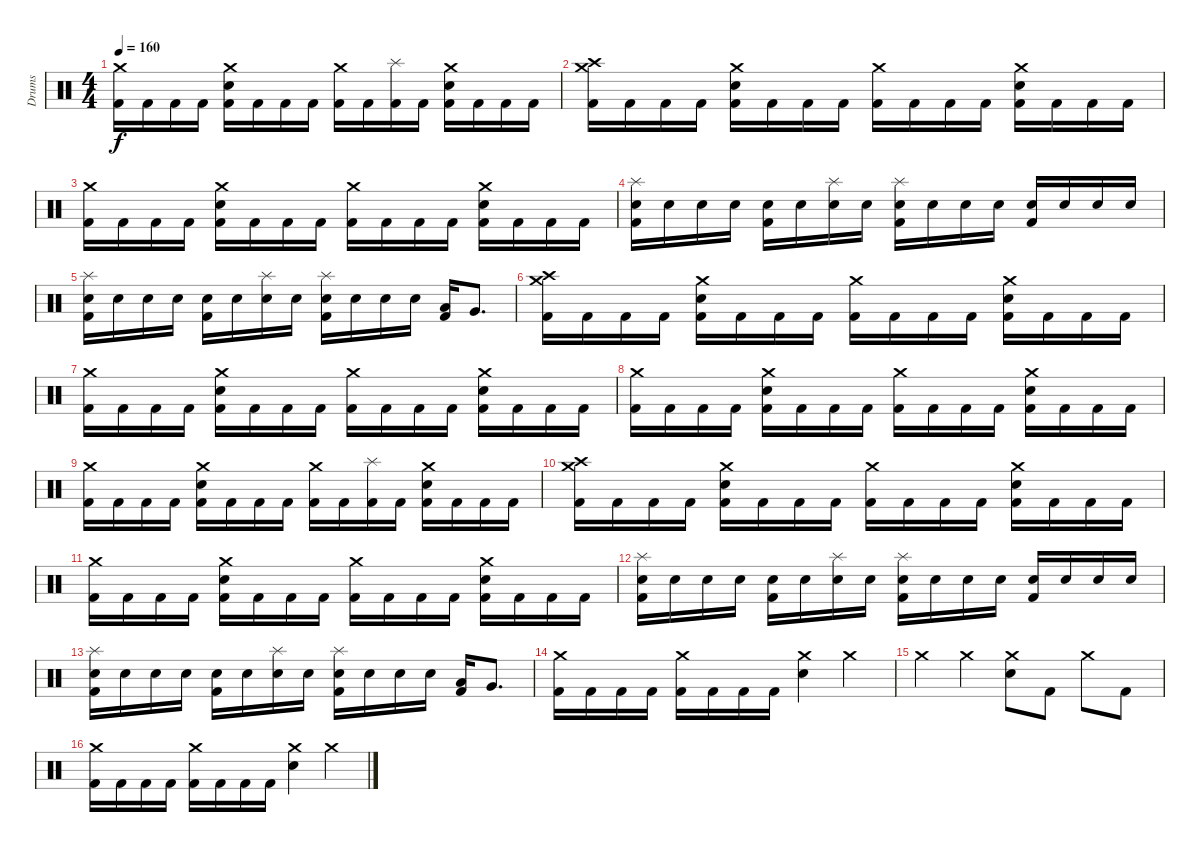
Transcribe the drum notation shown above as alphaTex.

\track ("Drums" "Drums") {instrument percussion}
\staff {score}
\articulation defaults
\ts (4 4)
\tempo 160
\clef neutral
\ks c
("Crash medium (hit)" "Kick (hit) 2").16{dy f} "Kick (hit) 2".16 "Kick (hit) 2".16 "Kick (hit) 2".16 ("Crash medium (hit)" "Electric Snare (hit)" "Kick (hit) 2").16 "Kick (hit) 2".16 "Kick (hit) 2".16 "Kick (hit) 2".16 ("Crash medium (hit)" "Kick (hit) 2").16 "Kick (hit) 2".16 ("Splash (hit)" "Kick (hit) 2").16 "Kick (hit) 2".16 ("Crash medium (hit)" "Electric Snare (hit)" "Kick (hit) 2").16 "Kick (hit) 2".16 "Kick (hit) 2".16 "Kick (hit) 2".16 |
("Crash medium (hit)" "Crash high (hit)" "Kick (hit) 2").16 "Kick (hit) 2".16 "Kick (hit) 2".16 "Kick (hit) 2".16 ("Crash medium (hit)" "Electric Snare (hit)" "Kick (hit) 2").16 "Kick (hit) 2".16 "Kick (hit) 2".16 "Kick (hit) 2".16 ("Crash medium (hit)" "Kick (hit) 2").16 "Kick (hit) 2".16 "Kick (hit) 2".16 "Kick (hit) 2".16 ("Crash medium (hit)" "Electric Snare (hit)" "Kick (hit) 2").16 "Kick (hit) 2".16 "Kick (hit) 2".16 "Kick (hit) 2".16 |
("Crash medium (hit)" "Kick (hit) 2").16 "Kick (hit) 2".16 "Kick (hit) 2".16 "Kick (hit) 2".16 ("Crash medium (hit)" "Electric Snare (hit)" "Kick (hit) 2").16 "Kick (hit) 2".16 "Kick (hit) 2".16 "Kick (hit) 2".16 ("Crash medium (hit)" "Kick (hit) 2").16 "Kick (hit) 2".16 "Kick (hit) 2".16 "Kick (hit) 2".16 ("Crash medium (hit)" "Electric Snare (hit)" "Kick (hit) 2").16 "Kick (hit) 2".16 "Kick (hit) 2".16 "Kick (hit) 2".16 |
("Splash (hit)" "Electric Snare (hit)" "Kick (hit) 2").16 "Electric Snare (hit)".16 "Electric Snare (hit)".16 "Electric Snare (hit)".16 ("Electric Snare (hit)" "Kick (hit) 2").16 "Electric Snare (hit)".16 ("Splash (hit)" "Electric Snare (hit)").16 "Electric Snare (hit)".16 ("Splash (hit)" "Electric Snare (hit)" "Kick (hit) 2").16 "Electric Snare (hit)".16 "Electric Snare (hit)".16 "Electric Snare (hit)".16 ("Electric Snare (hit)" "Kick (hit) 2").16 "Electric Snare (hit)".16 "Electric Snare (hit)".16 "Electric Snare (hit)".16 |
("Splash (hit)" "Electric Snare (hit)" "Kick (hit) 2").16 "Electric Snare (hit)".16 "Electric Snare (hit)".16 "Electric Snare (hit)".16 ("Electric Snare (hit)" "Kick (hit) 2").16 "Electric Snare (hit)".16 ("Splash (hit)" "Electric Snare (hit)").16 "Electric Snare (hit)".16 ("Splash (hit)" "Electric Snare (hit)" "Kick (hit) 2").16 "Electric Snare (hit)".16 "Electric Snare (hit)".16 "Electric Snare (hit)".16 ("Low Tom (hit)" "Kick (hit) 2").16 "Very Low Tom (hit)".8{d} |
("Crash medium (hit)" "Crash high (hit)" "Kick (hit) 2").16 "Kick (hit) 2".16 "Kick (hit) 2".16 "Kick (hit) 2".16 ("Crash medium (hit)" "Electric Snare (hit)" "Kick (hit) 2").16 "Kick (hit) 2".16 "Kick (hit) 2".16 "Kick (hit) 2".16 ("Crash medium (hit)" "Kick (hit) 2").16 "Kick (hit) 2".16 "Kick (hit) 2".16 "Kick (hit) 2".16 ("Crash medium (hit)" "Electric Snare (hit)" "Kick (hit) 2").16 "Kick (hit) 2".16 "Kick (hit) 2".16 "Kick (hit) 2".16 |
("Crash medium (hit)" "Kick (hit) 2").16 "Kick (hit) 2".16 "Kick (hit) 2".16 "Kick (hit) 2".16 ("Crash medium (hit)" "Electric Snare (hit)" "Kick (hit) 2").16 "Kick (hit) 2".16 "Kick (hit) 2".16 "Kick (hit) 2".16 ("Crash medium (hit)" "Kick (hit) 2").16 "Kick (hit) 2".16 "Kick (hit) 2".16 "Kick (hit) 2".16 ("Crash medium (hit)" "Electric Snare (hit)" "Kick (hit) 2").16 "Kick (hit) 2".16 "Kick (hit) 2".16 "Kick (hit) 2".16 |
("Crash medium (hit)" "Kick (hit) 2").16 "Kick (hit) 2".16 "Kick (hit) 2".16 "Kick (hit) 2".16 ("Crash medium (hit)" "Electric Snare (hit)" "Kick (hit) 2").16 "Kick (hit) 2".16 "Kick (hit) 2".16 "Kick (hit) 2".16 ("Crash medium (hit)" "Kick (hit) 2").16 "Kick (hit) 2".16 "Kick (hit) 2".16 "Kick (hit) 2".16 ("Crash medium (hit)" "Electric Snare (hit)" "Kick (hit) 2").16 "Kick (hit) 2".16 "Kick (hit) 2".16 "Kick (hit) 2".16 |
("Crash medium (hit)" "Kick (hit) 2").16 "Kick (hit) 2".16 "Kick (hit) 2".16 "Kick (hit) 2".16 ("Crash medium (hit)" "Electric Snare (hit)" "Kick (hit) 2").16 "Kick (hit) 2".16 "Kick (hit) 2".16 "Kick (hit) 2".16 ("Crash medium (hit)" "Kick (hit) 2").16 "Kick (hit) 2".16 ("Splash (hit)" "Kick (hit) 2").16 "Kick (hit) 2".16 ("Crash medium (hit)" "Electric Snare (hit)" "Kick (hit) 2").16 "Kick (hit) 2".16 "Kick (hit) 2".16 "Kick (hit) 2".16 |
("Crash medium (hit)" "Crash high (hit)" "Kick (hit) 2").16 "Kick (hit) 2".16 "Kick (hit) 2".16 "Kick (hit) 2".16 ("Crash medium (hit)" "Electric Snare (hit)" "Kick (hit) 2").16 "Kick (hit) 2".16 "Kick (hit) 2".16 "Kick (hit) 2".16 ("Crash medium (hit)" "Kick (hit) 2").16 "Kick (hit) 2".16 "Kick (hit) 2".16 "Kick (hit) 2".16 ("Crash medium (hit)" "Electric Snare (hit)" "Kick (hit) 2").16 "Kick (hit) 2".16 "Kick (hit) 2".16 "Kick (hit) 2".16 |
("Crash medium (hit)" "Kick (hit) 2").16 "Kick (hit) 2".16 "Kick (hit) 2".16 "Kick (hit) 2".16 ("Crash medium (hit)" "Electric Snare (hit)" "Kick (hit) 2").16 "Kick (hit) 2".16 "Kick (hit) 2".16 "Kick (hit) 2".16 ("Crash medium (hit)" "Kick (hit) 2").16 "Kick (hit) 2".16 "Kick (hit) 2".16 "Kick (hit) 2".16 ("Crash medium (hit)" "Electric Snare (hit)" "Kick (hit) 2").16 "Kick (hit) 2".16 "Kick (hit) 2".16 "Kick (hit) 2".16 |
("Splash (hit)" "Electric Snare (hit)" "Kick (hit) 2").16 "Electric Snare (hit)".16 "Electric Snare (hit)".16 "Electric Snare (hit)".16 ("Electric Snare (hit)" "Kick (hit) 2").16 "Electric Snare (hit)".16 ("Splash (hit)" "Electric Snare (hit)").16 "Electric Snare (hit)".16 ("Splash (hit)" "Electric Snare (hit)" "Kick (hit) 2").16 "Electric Snare (hit)".16 "Electric Snare (hit)".16 "Electric Snare (hit)".16 ("Electric Snare (hit)" "Kick (hit) 2").16 "Electric Snare (hit)".16 "Electric Snare (hit)".16 "Electric Snare (hit)".16 |
("Splash (hit)" "Electric Snare (hit)" "Kick (hit) 2").16 "Electric Snare (hit)".16 "Electric Snare (hit)".16 "Electric Snare (hit)".16 ("Electric Snare (hit)" "Kick (hit) 2").16 "Electric Snare (hit)".16 ("Splash (hit)" "Electric Snare (hit)").16 "Electric Snare (hit)".16 ("Splash (hit)" "Electric Snare (hit)" "Kick (hit) 2").16 "Electric Snare (hit)".16 "Electric Snare (hit)".16 "Electric Snare (hit)".16 ("Low Tom (hit)" "Kick (hit) 2").16 "Very Low Tom (hit)".8{d} |
("Crash medium (hit)" "Kick (hit) 2").16 "Kick (hit) 2".16 "Kick (hit) 2".16 "Kick (hit) 2".16 ("Crash medium (hit)" "Kick (hit) 2").16 "Kick (hit) 2".16 "Kick (hit) 2".16 "Kick (hit) 2".16 ("Crash medium (hit)" "Electric Snare (hit)").4 "Crash medium (hit)".4 |
"Crash medium (hit)".4 "Crash medium (hit)".4 ("Crash medium (hit)" "Electric Snare (hit)").8 "Kick (hit) 2".8 "Crash medium (hit)".8 "Kick (hit) 2".8 |
("Crash medium (hit)" "Kick (hit) 2").16 "Kick (hit) 2".16 "Kick (hit) 2".16 "Kick (hit) 2".16 ("Crash medium (hit)" "Kick (hit) 2").16 "Kick (hit) 2".16 "Kick (hit) 2".16 "Kick (hit) 2".16 ("Crash medium (hit)" "Electric Snare (hit)").4 "Crash medium (hit)".4
